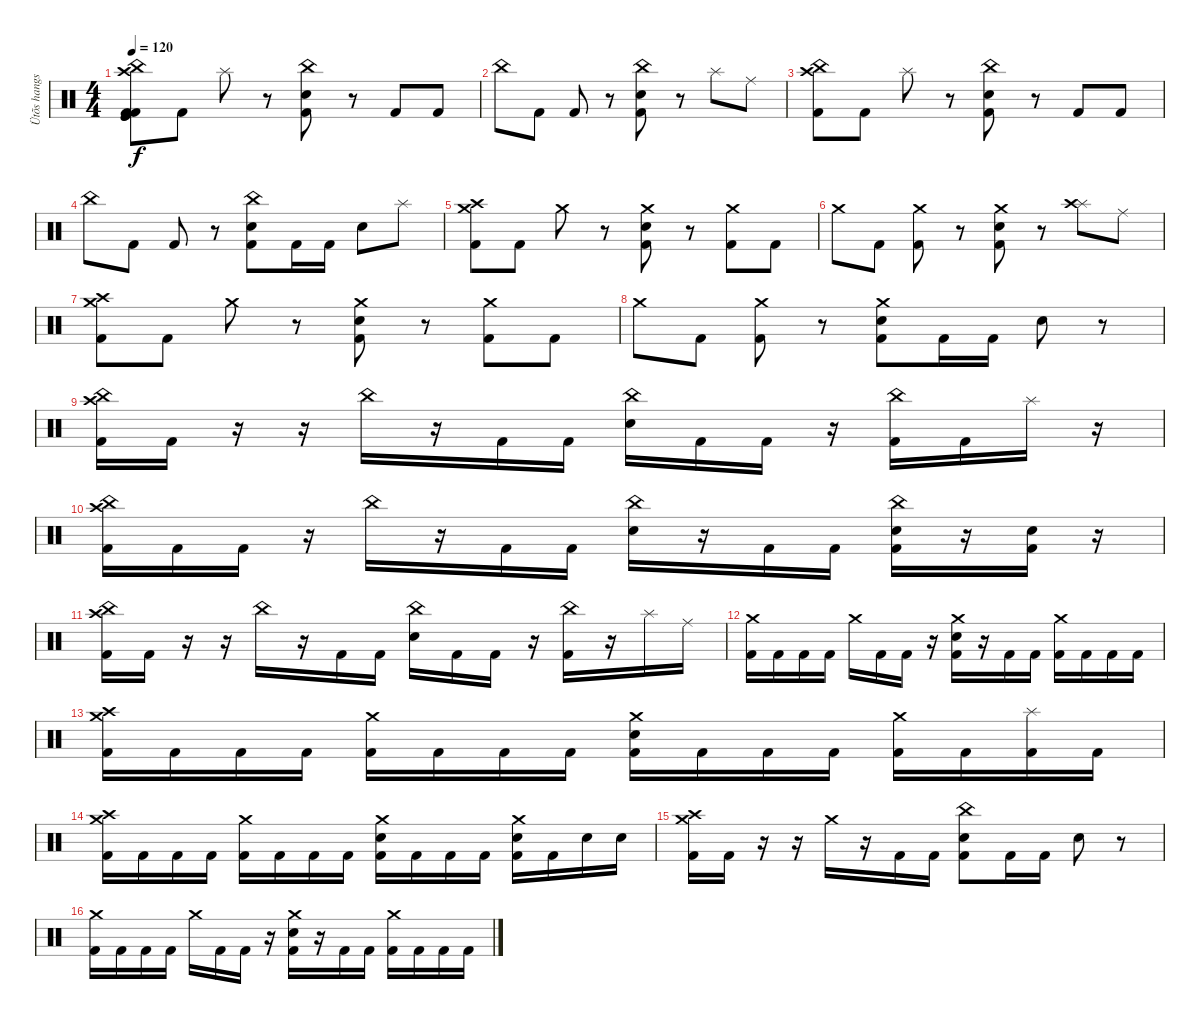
\track ("Ütõs hangszer" "Ütõs hangs") {instrument percussion}
\staff {score}
\articulation defaults
\ts (4 4)
\tempo 120
\clef neutral
\ks c
("China (hit)" "Crash high (hit)" "Kick (hit)" "Kick (hit) 2" "Kick (hit)" "Kick (hit) 2").8{dy f} "Kick (hit) 2".8 "Splash (hit)".8 r.8 ("China (hit)" "Electric Snare (hit)" "Kick (hit) 2").8 r.8 "Kick (hit) 2".8 "Kick (hit) 2".8 |
"China (hit)".8 "Kick (hit) 2".8 "Kick (hit) 2".8 r.8 ("China (hit)" "Electric Snare (hit)" "Kick (hit) 2").8 r.8 "Splash (hit)".8 "Ride (middle)".8 |
("China (hit)" "Crash high (hit)" "Kick (hit) 2").8 "Kick (hit) 2".8 "Splash (hit)".8 r.8 ("China (hit)" "Electric Snare (hit)" "Kick (hit) 2").8 r.8 "Kick (hit) 2".8 "Kick (hit) 2".8 |
"China (hit)".8 "Kick (hit) 2".8 "Kick (hit) 2".8 r.8 ("China (hit)" "Electric Snare (hit)" "Kick (hit) 2").8 "Kick (hit) 2".16 "Kick (hit) 2".16 "Electric Snare (hit)".8 "Splash (hit)".8 |
("Crash medium (hit)" "Crash high (hit)" "Kick (hit) 2").8 "Kick (hit) 2".8 "Crash medium (hit)".8 r.8 ("Crash medium (hit)" "Electric Snare (hit)" "Kick (hit) 2").8 r.8 ("Crash medium (hit)" "Kick (hit) 2").8 "Kick (hit) 2".8 |
"Crash medium (hit)".8 "Kick (hit) 2".8 ("Crash medium (hit)" "Kick (hit) 2").8 r.8 ("Crash medium (hit)" "Electric Snare (hit)" "Kick (hit) 2").8 r.8 ("Splash (hit)" "Crash high (hit)").8 "Ride (middle)".8 |
("Crash medium (hit)" "Crash high (hit)" "Kick (hit) 2").8 "Kick (hit) 2".8 "Crash medium (hit)".8 r.8 ("Crash medium (hit)" "Electric Snare (hit)" "Kick (hit) 2").8 r.8 ("Crash medium (hit)" "Kick (hit) 2").8 "Kick (hit) 2".8 |
"Crash medium (hit)".8 "Kick (hit) 2".8 ("Crash medium (hit)" "Kick (hit) 2").8 r.8 ("Crash medium (hit)" "Electric Snare (hit)" "Kick (hit) 2").8 "Kick (hit) 2".16 "Kick (hit) 2".16 "Electric Snare (hit)".8 r.8 |
("China (hit)" "Crash high (hit)" "Kick (hit) 2").16 "Kick (hit) 2".16 r.16 r.16 "China (hit)".16 r.16 "Kick (hit) 2".16 "Kick (hit) 2".16 ("China (hit)" "Electric Snare (hit)").16 "Kick (hit) 2".16 "Kick (hit) 2".16 r.16 ("China (hit)" "Kick (hit) 2").16 "Kick (hit) 2".16 "Splash (hit)".16 r.16 |
("China (hit)" "Crash high (hit)" "Kick (hit) 2").16 "Kick (hit) 2".16 "Kick (hit) 2".16 r.16 "China (hit)".16 r.16 "Kick (hit) 2".16 "Kick (hit) 2".16 ("China (hit)" "Electric Snare (hit)").16 r.16 "Kick (hit) 2".16 "Kick (hit) 2".16 ("China (hit)" "Electric Snare (hit)" "Kick (hit) 2").16 r.16 ("Electric Snare (hit)" "Kick (hit) 2").16 r.16 |
("China (hit)" "Crash high (hit)" "Kick (hit) 2").16 "Kick (hit) 2".16 r.16 r.16 "China (hit)".16 r.16 "Kick (hit) 2".16 "Kick (hit) 2".16 ("China (hit)" "Electric Snare (hit)").16 "Kick (hit) 2".16 "Kick (hit) 2".16 r.16 ("China (hit)" "Kick (hit) 2").16 r.16 "Splash (hit)".16 "Ride (middle)".16 |
("Crash medium (hit)" "Kick (hit) 2").16 "Kick (hit) 2".16 "Kick (hit) 2".16 "Kick (hit) 2".16 "Crash medium (hit)".16 "Kick (hit) 2".16 "Kick (hit) 2".16 r.16 ("Crash medium (hit)" "Electric Snare (hit)" "Kick (hit) 2").16 r.16 "Kick (hit) 2".16 "Kick (hit) 2".16 ("Crash medium (hit)" "Kick (hit) 2").16 "Kick (hit) 2".16 "Kick (hit) 2".16 "Kick (hit) 2".16 |
("Crash medium (hit)" "Crash high (hit)" "Kick (hit) 2").16 "Kick (hit) 2".16 "Kick (hit) 2".16 "Kick (hit) 2".16 ("Crash medium (hit)" "Kick (hit) 2").16 "Kick (hit) 2".16 "Kick (hit) 2".16 "Kick (hit) 2".16 ("Crash medium (hit)" "Electric Snare (hit)" "Kick (hit) 2").16 "Kick (hit) 2".16 "Kick (hit) 2".16 "Kick (hit) 2".16 ("Crash medium (hit)" "Kick (hit) 2").16 "Kick (hit) 2".16 ("Splash (hit)" "Kick (hit) 2").16 "Kick (hit) 2".16 |
("Crash medium (hit)" "Crash high (hit)" "Kick (hit) 2").16 "Kick (hit) 2".16 "Kick (hit) 2".16 "Kick (hit) 2".16 ("Crash medium (hit)" "Kick (hit) 2").16 "Kick (hit) 2".16 "Kick (hit) 2".16 "Kick (hit) 2".16 ("Crash medium (hit)" "Electric Snare (hit)" "Kick (hit) 2").16 "Kick (hit) 2".16 "Kick (hit) 2".16 "Kick (hit) 2".16 ("Crash medium (hit)" "Electric Snare (hit)" "Kick (hit) 2").16 "Kick (hit) 2".16 "Electric Snare (hit)".16 "Electric Snare (hit)".16 |
("Crash medium (hit)" "Crash high (hit)" "Kick (hit) 2").16 "Kick (hit) 2".16 r.16 r.16 "Crash medium (hit)".16 r.16 "Kick (hit) 2".16 "Kick (hit) 2".16 ("China (hit)" "Electric Snare (hit)" "Kick (hit) 2").8 "Kick (hit) 2".16 "Kick (hit) 2".16 "Electric Snare (hit)".8 r.8 |
("Crash medium (hit)" "Kick (hit) 2").16 "Kick (hit) 2".16 "Kick (hit) 2".16 "Kick (hit) 2".16 "Crash medium (hit)".16 "Kick (hit) 2".16 "Kick (hit) 2".16 r.16 ("Crash medium (hit)" "Electric Snare (hit)" "Kick (hit) 2").16 r.16 "Kick (hit) 2".16 "Kick (hit) 2".16 ("Crash medium (hit)" "Kick (hit) 2").16 "Kick (hit) 2".16 "Kick (hit) 2".16 "Kick (hit) 2".16
